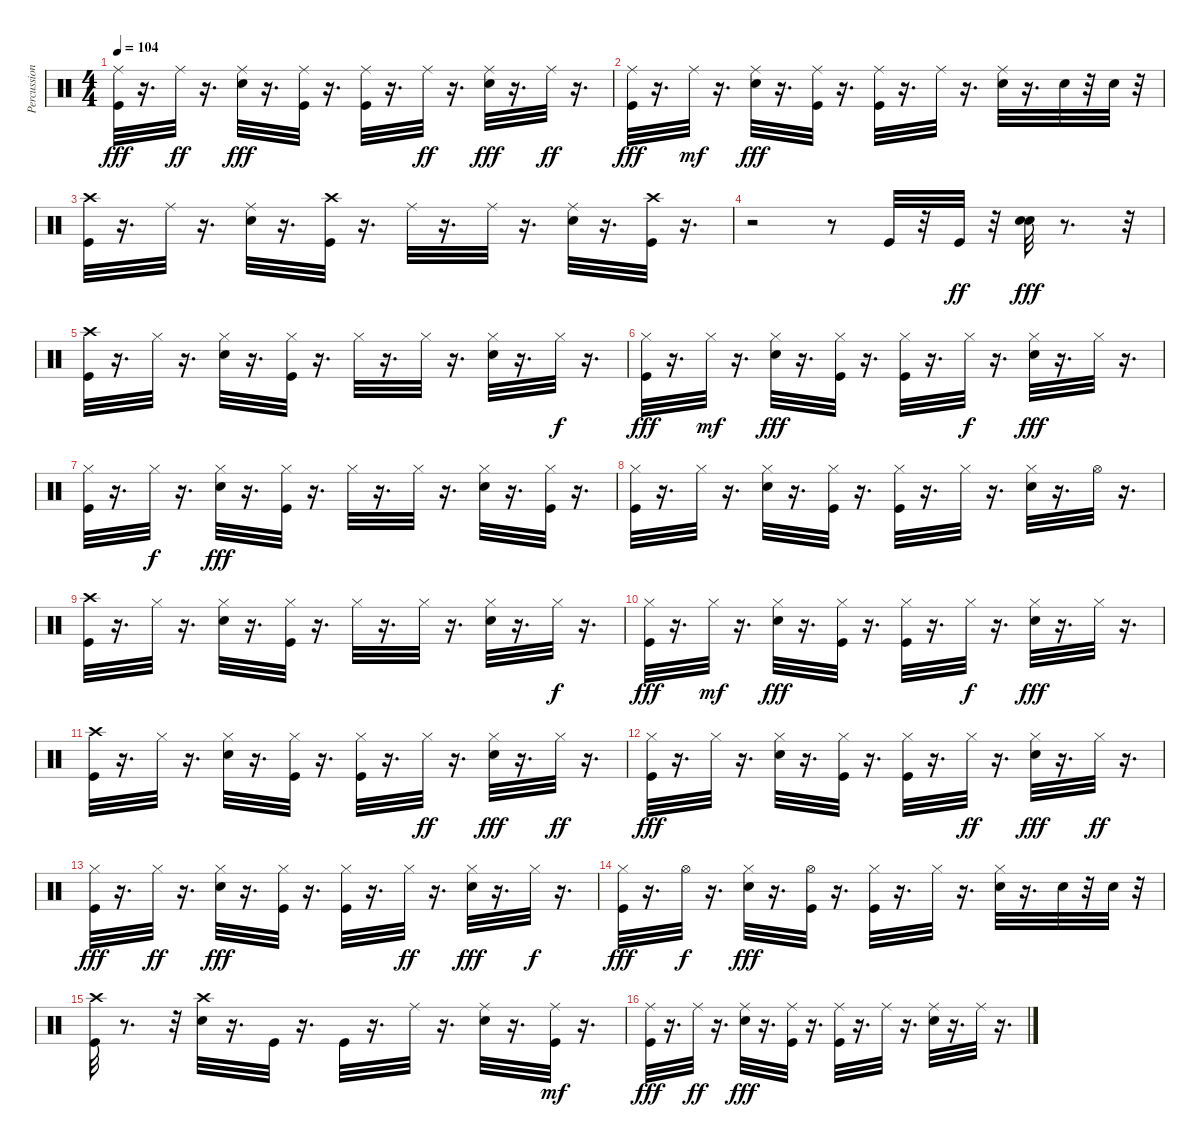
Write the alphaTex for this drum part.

\track ("Percussion" "Percussion") {instrument percussion}
\staff {score}
\articulation defaults
\ts (4 4)
\tempo 104
\clef neutral
\ks c
("Ride (middle)" "Kick (hit)").32{dy fff} r.16{d} "Ride (middle)".32{dy ff} r.16{d} ("Ride (middle)" "Snare (hit) 2").32{dy fff} r.16{d} ("Ride (middle)" "Kick (hit)").32 r.16{d} ("Ride (middle)" "Kick (hit)").32 r.16{d} "Ride (middle)".32{dy ff} r.16{d} ("Ride (middle)" "Snare (hit) 2").32{dy fff} r.16{d} "Ride (middle)".32{dy ff} r.16{d} |
("Ride (middle)" "Kick (hit)").32{dy fff} r.16{d} "Ride (middle)".32{dy mf} r.16{d} ("Ride (middle)" "Snare (hit) 2").32{dy fff} r.16{d} ("Ride (middle)" "Kick (hit)").32 r.16{d} ("Ride (middle)" "Kick (hit)").32 r.16{d} "Ride (middle)".32 r.16{d} ("Ride (middle)" "Snare (hit) 2").32 r.16{d} "Snare (hit) 2".32 r.32 "Snare (hit) 2".32 r.32 |
("Crash high (hit)" "Kick (hit)").32 r.16{d} "Ride (middle)".32 r.16{d} ("Ride (middle)" "Snare (hit) 2").32 r.16{d} ("Crash high (hit)" "Kick (hit)").32 r.16{d} "Ride (middle)".32 r.16{d} "Ride (middle)".32 r.16{d} ("Ride (middle)" "Snare (hit) 2").32 r.16{d} ("Crash high (hit)" "Kick (hit)").32 r.16{d} |
r.2 r.8 "Kick (hit)".32 r.32 "Kick (hit)".32{dy ff} r.32 ("Snare (hit) 2" "Snare (hit) 2").32{dy fff} r.8{d} r.32 |
("Crash high (hit)" "Kick (hit)").32 r.16{d} "Hi-Hat (closed)".32 r.16{d} ("Hi-Hat (closed)" "Snare (hit) 2").32 r.16{d} ("Hi-Hat (closed)" "Kick (hit)").32 r.16{d} "Hi-Hat (closed)".32 r.16{d} "Hi-Hat (closed)".32 r.16{d} ("Hi-Hat (closed)" "Snare (hit) 2").32 r.16{d} "Hi-Hat (closed)".32{dy f} r.16{d} |
("Hi-Hat (closed)" "Kick (hit)").32{dy fff} r.16{d} "Hi-Hat (closed)".32{dy mf} r.16{d} ("Hi-Hat (closed)" "Snare (hit) 2").32{dy fff} r.16{d} ("Hi-Hat (closed)" "Kick (hit)").32 r.16{d} ("Hi-Hat (closed)" "Kick (hit)").32 r.16{d} "Hi-Hat (closed)".32{dy f} r.16{d} ("Hi-Hat (closed)" "Snare (hit) 2").32{dy fff} r.16{d} "Hi-Hat (closed)".32 r.16{d} |
("Hi-Hat (closed)" "Kick (hit)").32 r.16{d} "Hi-Hat (closed)".32{dy f} r.16{d} ("Hi-Hat (closed)" "Snare (hit) 2").32{dy fff} r.16{d} ("Hi-Hat (closed)" "Kick (hit)").32 r.16{d} "Hi-Hat (closed)".32 r.16{d} "Hi-Hat (closed)".32 r.16{d} ("Hi-Hat (closed)" "Snare (hit) 2").32 r.16{d} ("Hi-Hat (closed)" "Kick (hit)").32 r.16{d} |
("Hi-Hat (closed)" "Kick (hit)").32 r.16{d} "Hi-Hat (closed)".32 r.16{d} ("Hi-Hat (closed)" "Snare (hit) 2").32 r.16{d} ("Hi-Hat (closed)" "Kick (hit)").32 r.16{d} ("Hi-Hat (closed)" "Kick (hit)").32 r.16{d} "Hi-Hat (closed)".32 r.16{d} ("Hi-Hat (closed)" "Snare (hit) 2").32 r.16{d} "Hi-Hat (open)".32 r.16{d} |
("Crash high (hit)" "Kick (hit)").32 r.16{d} "Hi-Hat (closed)".32 r.16{d} ("Hi-Hat (closed)" "Snare (hit) 2").32 r.16{d} ("Hi-Hat (closed)" "Kick (hit)").32 r.16{d} "Hi-Hat (closed)".32 r.16{d} "Hi-Hat (closed)".32 r.16{d} ("Hi-Hat (closed)" "Snare (hit) 2").32 r.16{d} "Hi-Hat (closed)".32{dy f} r.16{d} |
("Hi-Hat (closed)" "Kick (hit)").32{dy fff} r.16{d} "Hi-Hat (closed)".32{dy mf} r.16{d} ("Hi-Hat (closed)" "Snare (hit) 2").32{dy fff} r.16{d} ("Hi-Hat (closed)" "Kick (hit)").32 r.16{d} ("Hi-Hat (closed)" "Kick (hit)").32 r.16{d} "Hi-Hat (closed)".32{dy f} r.16{d} ("Hi-Hat (closed)" "Snare (hit) 2").32{dy fff} r.16{d} "Hi-Hat (closed)".32 r.16{d} |
("Crash high (hit)" "Kick (hit)").32 r.16{d} "Hi-Hat (closed)".32 r.16{d} ("Hi-Hat (closed)" "Snare (hit) 2").32 r.16{d} ("Hi-Hat (closed)" "Kick (hit)").32 r.16{d} ("Hi-Hat (closed)" "Kick (hit)").32 r.16{d} "Hi-Hat (closed)".32{dy ff} r.16{d} ("Hi-Hat (closed)" "Snare (hit) 2").32{dy fff} r.16{d} "Hi-Hat (closed)".32{dy ff} r.16{d} |
("Hi-Hat (closed)" "Kick (hit)").32{dy fff} r.16{d} "Hi-Hat (closed)".32 r.16{d} ("Hi-Hat (closed)" "Snare (hit) 2").32 r.16{d} ("Hi-Hat (closed)" "Kick (hit)").32 r.16{d} ("Hi-Hat (closed)" "Kick (hit)").32 r.16{d} "Hi-Hat (closed)".32{dy ff} r.16{d} ("Hi-Hat (closed)" "Snare (hit) 2").32{dy fff} r.16{d} "Hi-Hat (closed)".32{dy ff} r.16{d} |
("Hi-Hat (closed)" "Kick (hit)").32{dy fff} r.16{d} "Hi-Hat (closed)".32{dy ff} r.16{d} ("Hi-Hat (closed)" "Snare (hit) 2").32{dy fff} r.16{d} ("Hi-Hat (closed)" "Kick (hit)").32 r.16{d} ("Hi-Hat (closed)" "Kick (hit)").32 r.16{d} "Hi-Hat (closed)".32{dy ff} r.16{d} ("Hi-Hat (closed)" "Snare (hit) 2").32{dy fff} r.16{d} "Hi-Hat (closed)".32{dy f} r.16{d} |
("Hi-Hat (closed)" "Kick (hit)").32{dy fff} r.16{d} "Hi-Hat (open)".32{dy f} r.16{d} ("Hi-Hat (closed)" "Snare (hit) 2").32{dy fff} r.16{d} ("Hi-Hat (open)" "Kick (hit)").32 r.16{d} ("Hi-Hat (closed)" "Kick (hit)").32 r.16{d} "Hi-Hat (closed)".32 r.16{d} ("Hi-Hat (closed)" "Snare (hit) 2").32 r.16{d} "Snare (hit) 2".32 r.32 "Snare (hit) 2".32 r.32 |
("Crash high (hit)" "Kick (hit)").32 r.8{d} r.32 ("Crash high (hit)" "Snare (hit) 2").32 r.16{d} "Kick (hit)".32 r.16{d} "Kick (hit)".32 r.16{d} "Ride (middle)".32 r.16{d} ("Ride (middle)" "Snare (hit) 2").32 r.16{d} ("Ride (middle)" "Kick (hit)").32{dy mf} r.16{d} |
("Ride (middle)" "Kick (hit)").32{dy fff} r.16{d} "Ride (middle)".32{dy ff} r.16{d} ("Ride (middle)" "Snare (hit) 2").32{dy fff} r.16{d} ("Ride (middle)" "Kick (hit)").32 r.16{d} ("Ride (middle)" "Kick (hit)").32 r.16{d} "Ride (middle)".32 r.16{d} ("Ride (middle)" "Snare (hit) 2").32 r.16{d} "Ride (middle)".32 r.16{d}
